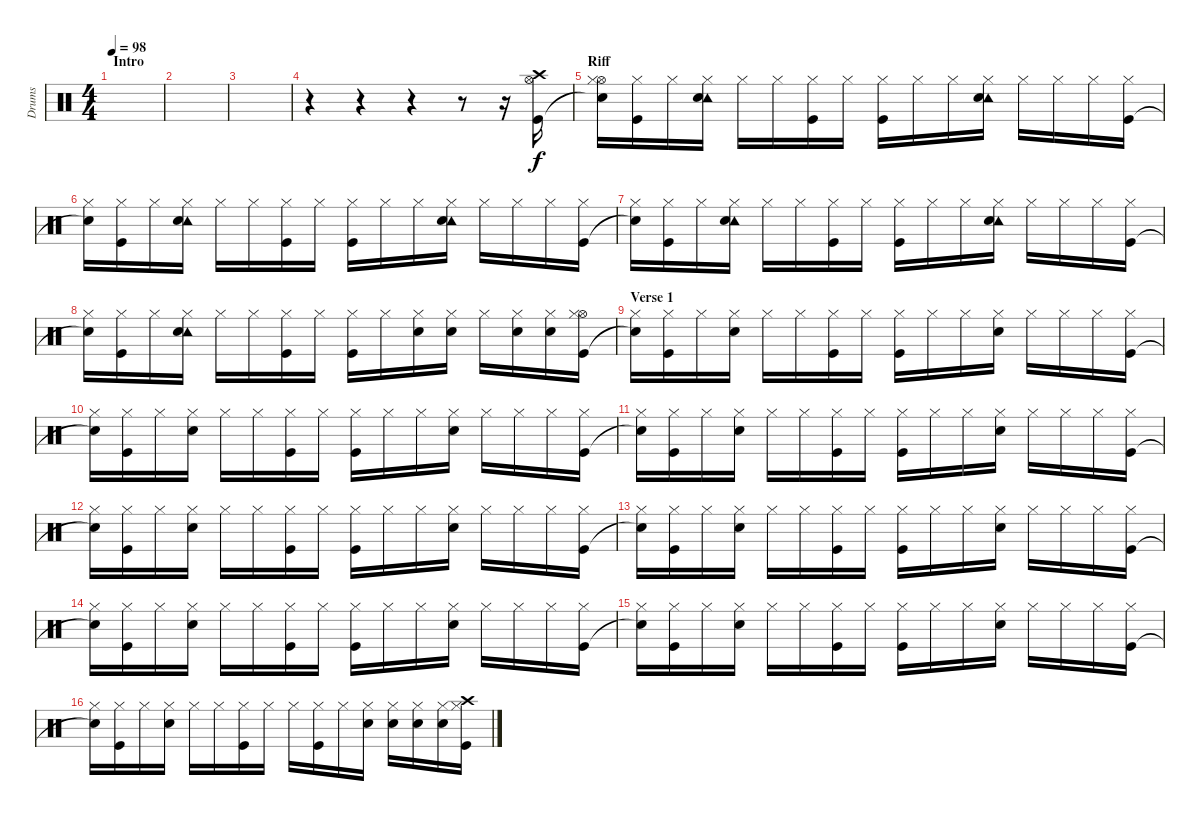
\track ("Drums" "Drums") {instrument percussion}
\staff {score}
\articulation defaults
\ts (4 4)
\section ("" "Intro")
\tempo 98
\clef neutral
\ks c
|
|
|
r.4 r.4 r.4 r.8 r.16 ("Kick (hit)" "Hi-Hat (open)" "Crash high (hit)").16 |
\section ("" "Riff")
("Snare (hit)"{t} "Hi-Hat (open)" "Hi-Hat (closed)").16 ("Kick (hit)" "Hi-Hat (closed)").16 "Hi-Hat (closed)".16 ("Tambourine (hit)" "Electric Snare (hit)" "Hi-Hat (closed)").16 "Hi-Hat (closed)".16 "Hi-Hat (closed)".16 ("Kick (hit)" "Hi-Hat (closed)").16 "Hi-Hat (closed)".16 ("Kick (hit)" "Hi-Hat (closed)").16 "Hi-Hat (closed)".16 "Hi-Hat (closed)".16 ("Tambourine (hit)" "Electric Snare (hit)" "Hi-Hat (closed)").16 "Hi-Hat (closed)".16 "Hi-Hat (closed)".16 "Hi-Hat (closed)".16 ("Kick (hit)" "Hi-Hat (closed)").16 |
("Snare (hit)"{t} "Hi-Hat (closed)").16 ("Kick (hit)" "Hi-Hat (closed)").16 "Hi-Hat (closed)".16 ("Tambourine (hit)" "Electric Snare (hit)" "Hi-Hat (closed)").16 "Hi-Hat (closed)".16 "Hi-Hat (closed)".16 ("Kick (hit)" "Hi-Hat (closed)").16 "Hi-Hat (closed)".16 ("Kick (hit)" "Hi-Hat (closed)").16 "Hi-Hat (closed)".16 "Hi-Hat (closed)".16 ("Tambourine (hit)" "Electric Snare (hit)" "Hi-Hat (closed)").16 "Hi-Hat (closed)".16 "Hi-Hat (closed)".16 "Hi-Hat (closed)".16 ("Kick (hit)" "Hi-Hat (closed)").16 |
("Snare (hit)"{t} "Hi-Hat (closed)").16 ("Kick (hit)" "Hi-Hat (closed)").16 "Hi-Hat (closed)".16 ("Tambourine (hit)" "Electric Snare (hit)" "Hi-Hat (closed)").16 "Hi-Hat (closed)".16 "Hi-Hat (closed)".16 ("Kick (hit)" "Hi-Hat (closed)").16 "Hi-Hat (closed)".16 ("Kick (hit)" "Hi-Hat (closed)").16 "Hi-Hat (closed)".16 "Hi-Hat (closed)".16 ("Tambourine (hit)" "Electric Snare (hit)" "Hi-Hat (closed)").16 "Hi-Hat (closed)".16 "Hi-Hat (closed)".16 "Hi-Hat (closed)".16 ("Kick (hit)" "Hi-Hat (closed)").16 |
("Snare (hit)"{t} "Hi-Hat (closed)").16 ("Kick (hit)" "Hi-Hat (closed)").16 "Hi-Hat (closed)".16 ("Tambourine (hit)" "Electric Snare (hit)" "Hi-Hat (closed)").16 "Hi-Hat (closed)".16 "Hi-Hat (closed)".16 ("Kick (hit)" "Hi-Hat (closed)").16 "Hi-Hat (closed)".16 ("Kick (hit)" "Hi-Hat (closed)").16 "Hi-Hat (closed)".16 ("Electric Snare (hit)" "Hi-Hat (closed)").16 ("Electric Snare (hit)" "Hi-Hat (closed)").16 "Hi-Hat (closed)".16 ("Electric Snare (hit)" "Hi-Hat (closed)").16 ("Electric Snare (hit)" "Hi-Hat (closed)").16 ("Kick (hit)" "Hi-Hat (open)" "Hi-Hat (closed)").16 |
\section ("" "Verse 1")
("Snare (hit)"{t} "Hi-Hat (closed)").16 ("Kick (hit)" "Hi-Hat (closed)").16 "Hi-Hat (closed)".16 ("Electric Snare (hit)" "Hi-Hat (closed)").16 "Hi-Hat (closed)".16 "Hi-Hat (closed)".16 ("Kick (hit)" "Hi-Hat (closed)").16 "Hi-Hat (closed)".16 ("Kick (hit)" "Hi-Hat (closed)").16 "Hi-Hat (closed)".16 "Hi-Hat (closed)".16 ("Electric Snare (hit)" "Hi-Hat (closed)").16 "Hi-Hat (closed)".16 "Hi-Hat (closed)".16 "Hi-Hat (closed)".16 ("Kick (hit)" "Hi-Hat (closed)").16 |
("Snare (hit)"{t} "Hi-Hat (closed)").16 ("Kick (hit)" "Hi-Hat (closed)").16 "Hi-Hat (closed)".16 ("Electric Snare (hit)" "Hi-Hat (closed)").16 "Hi-Hat (closed)".16 "Hi-Hat (closed)".16 ("Kick (hit)" "Hi-Hat (closed)").16 "Hi-Hat (closed)".16 ("Kick (hit)" "Hi-Hat (closed)").16 "Hi-Hat (closed)".16 "Hi-Hat (closed)".16 ("Electric Snare (hit)" "Hi-Hat (closed)").16 "Hi-Hat (closed)".16 "Hi-Hat (closed)".16 "Hi-Hat (closed)".16 ("Kick (hit)" "Hi-Hat (closed)").16 |
("Snare (hit)"{t} "Hi-Hat (closed)").16 ("Kick (hit)" "Hi-Hat (closed)").16 "Hi-Hat (closed)".16 ("Electric Snare (hit)" "Hi-Hat (closed)").16 "Hi-Hat (closed)".16 "Hi-Hat (closed)".16 ("Kick (hit)" "Hi-Hat (closed)").16 "Hi-Hat (closed)".16 ("Kick (hit)" "Hi-Hat (closed)").16 "Hi-Hat (closed)".16 "Hi-Hat (closed)".16 ("Electric Snare (hit)" "Hi-Hat (closed)").16 "Hi-Hat (closed)".16 "Hi-Hat (closed)".16 "Hi-Hat (closed)".16 ("Kick (hit)" "Hi-Hat (closed)").16 |
("Snare (hit)"{t} "Hi-Hat (closed)").16 ("Kick (hit)" "Hi-Hat (closed)").16 "Hi-Hat (closed)".16 ("Electric Snare (hit)" "Hi-Hat (closed)").16 "Hi-Hat (closed)".16 "Hi-Hat (closed)".16 ("Kick (hit)" "Hi-Hat (closed)").16 "Hi-Hat (closed)".16 ("Kick (hit)" "Hi-Hat (closed)").16 "Hi-Hat (closed)".16 "Hi-Hat (closed)".16 ("Electric Snare (hit)" "Hi-Hat (closed)").16 "Hi-Hat (closed)".16 "Hi-Hat (closed)".16 "Hi-Hat (closed)".16 ("Kick (hit)" "Hi-Hat (closed)").16 |
("Snare (hit)"{t} "Hi-Hat (closed)").16 ("Kick (hit)" "Hi-Hat (closed)").16 "Hi-Hat (closed)".16 ("Electric Snare (hit)" "Hi-Hat (closed)").16 "Hi-Hat (closed)".16 "Hi-Hat (closed)".16 ("Kick (hit)" "Hi-Hat (closed)").16 "Hi-Hat (closed)".16 ("Kick (hit)" "Hi-Hat (closed)").16 "Hi-Hat (closed)".16 "Hi-Hat (closed)".16 ("Electric Snare (hit)" "Hi-Hat (closed)").16 "Hi-Hat (closed)".16 "Hi-Hat (closed)".16 "Hi-Hat (closed)".16 ("Kick (hit)" "Hi-Hat (closed)").16 |
("Snare (hit)"{t} "Hi-Hat (closed)").16 ("Kick (hit)" "Hi-Hat (closed)").16 "Hi-Hat (closed)".16 ("Electric Snare (hit)" "Hi-Hat (closed)").16 "Hi-Hat (closed)".16 "Hi-Hat (closed)".16 ("Kick (hit)" "Hi-Hat (closed)").16 "Hi-Hat (closed)".16 ("Kick (hit)" "Hi-Hat (closed)").16 "Hi-Hat (closed)".16 "Hi-Hat (closed)".16 ("Electric Snare (hit)" "Hi-Hat (closed)").16 "Hi-Hat (closed)".16 "Hi-Hat (closed)".16 "Hi-Hat (closed)".16 ("Kick (hit)" "Hi-Hat (closed)").16 |
("Snare (hit)"{t} "Hi-Hat (closed)").16 ("Kick (hit)" "Hi-Hat (closed)").16 "Hi-Hat (closed)".16 ("Electric Snare (hit)" "Hi-Hat (closed)").16 "Hi-Hat (closed)".16 "Hi-Hat (closed)".16 ("Kick (hit)" "Hi-Hat (closed)").16 "Hi-Hat (closed)".16 ("Kick (hit)" "Hi-Hat (closed)").16 "Hi-Hat (closed)".16 "Hi-Hat (closed)".16 ("Electric Snare (hit)" "Hi-Hat (closed)").16 "Hi-Hat (closed)".16 "Hi-Hat (closed)".16 "Hi-Hat (closed)".16 ("Kick (hit)" "Hi-Hat (closed)").16 |
("Snare (hit)"{t} "Hi-Hat (closed)").16 ("Kick (hit)" "Hi-Hat (closed)").16 "Hi-Hat (closed)".16 ("Electric Snare (hit)" "Hi-Hat (closed)").16 "Hi-Hat (closed)".16 "Hi-Hat (closed)".16 ("Kick (hit)" "Hi-Hat (closed)").16 "Hi-Hat (closed)".16 "Hi-Hat (closed)".16 ("Kick (hit)" "Hi-Hat (closed)").16 "Hi-Hat (closed)".16 ("Electric Snare (hit)" "Hi-Hat (closed)").16 ("Electric Snare (hit)" "Hi-Hat (closed)").16 ("Electric Snare (hit)" "Hi-Hat (closed)").16 ("Electric Snare (hit)" "Hi-Hat (closed)").16 ("Kick (hit)" "Crash high (hit)" "Hi-Hat (closed)").16
